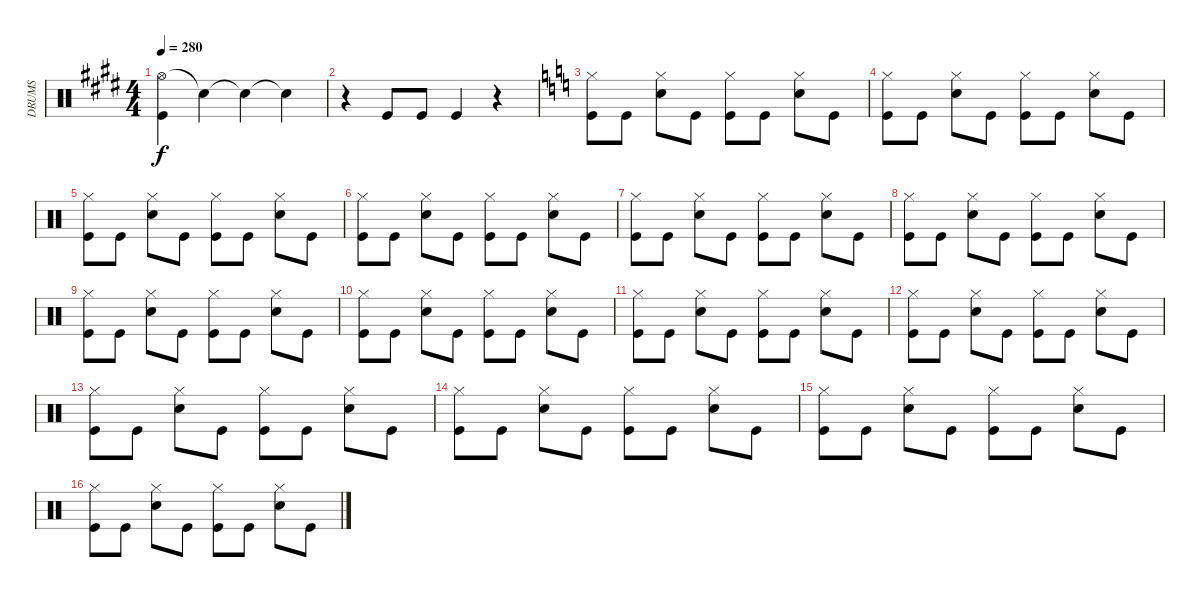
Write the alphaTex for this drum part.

\track ("DRUMS" "DRUMS") {instrument percussion}
\staff {score}
\articulation defaults
\ts (4 4)
\tempo 280
\clef neutral
\ks c#minor
("Hi-Hat (open)" "Kick (hit)").4{dy f} "Snare (hit)"{t}.4 "Snare (hit)"{t}.4 "Snare (hit)"{t}.4 |
r.4 "Kick (hit)".8 "Kick (hit)".8 "Kick (hit)".4 r.4 |
\ks aminor
("Hi-Hat (closed)" "Kick (hit)").8 "Kick (hit)".8 ("Hi-Hat (closed)" "Snare (hit) 2").8 "Kick (hit)".8 ("Hi-Hat (closed)" "Kick (hit)").8 "Kick (hit)".8 ("Hi-Hat (closed)" "Snare (hit) 2").8 "Kick (hit)".8 |
("Hi-Hat (closed)" "Kick (hit)").8 "Kick (hit)".8 ("Hi-Hat (closed)" "Snare (hit) 2").8 "Kick (hit)".8 ("Hi-Hat (closed)" "Kick (hit)").8 "Kick (hit)".8 ("Hi-Hat (closed)" "Snare (hit) 2").8 "Kick (hit)".8 |
("Hi-Hat (closed)" "Kick (hit)").8 "Kick (hit)".8 ("Hi-Hat (closed)" "Snare (hit) 2").8 "Kick (hit)".8 ("Hi-Hat (closed)" "Kick (hit)").8 "Kick (hit)".8 ("Hi-Hat (closed)" "Snare (hit) 2").8 "Kick (hit)".8 |
("Hi-Hat (closed)" "Kick (hit)").8 "Kick (hit)".8 ("Hi-Hat (closed)" "Snare (hit) 2").8 "Kick (hit)".8 ("Hi-Hat (closed)" "Kick (hit)").8 "Kick (hit)".8 ("Hi-Hat (closed)" "Snare (hit) 2").8 "Kick (hit)".8 |
("Hi-Hat (closed)" "Kick (hit)").8 "Kick (hit)".8 ("Hi-Hat (closed)" "Snare (hit) 2").8 "Kick (hit)".8 ("Hi-Hat (closed)" "Kick (hit)").8 "Kick (hit)".8 ("Hi-Hat (closed)" "Snare (hit) 2").8 "Kick (hit)".8 |
("Hi-Hat (closed)" "Kick (hit)").8 "Kick (hit)".8 ("Hi-Hat (closed)" "Snare (hit) 2").8 "Kick (hit)".8 ("Hi-Hat (closed)" "Kick (hit)").8 "Kick (hit)".8 ("Hi-Hat (closed)" "Snare (hit) 2").8 "Kick (hit)".8 |
("Hi-Hat (closed)" "Kick (hit)").8 "Kick (hit)".8 ("Hi-Hat (closed)" "Snare (hit) 2").8 "Kick (hit)".8 ("Hi-Hat (closed)" "Kick (hit)").8 "Kick (hit)".8 ("Hi-Hat (closed)" "Snare (hit) 2").8 "Kick (hit)".8 |
("Hi-Hat (closed)" "Kick (hit)").8 "Kick (hit)".8 ("Hi-Hat (closed)" "Snare (hit) 2").8 "Kick (hit)".8 ("Hi-Hat (closed)" "Kick (hit)").8 "Kick (hit)".8 ("Hi-Hat (closed)" "Snare (hit) 2").8 "Kick (hit)".8 |
("Hi-Hat (closed)" "Kick (hit)").8 "Kick (hit)".8 ("Hi-Hat (closed)" "Snare (hit) 2").8 "Kick (hit)".8 ("Hi-Hat (closed)" "Kick (hit)").8 "Kick (hit)".8 ("Hi-Hat (closed)" "Snare (hit) 2").8 "Kick (hit)".8 |
("Hi-Hat (closed)" "Kick (hit)").8 "Kick (hit)".8 ("Hi-Hat (closed)" "Snare (hit) 2").8 "Kick (hit)".8 ("Hi-Hat (closed)" "Kick (hit)").8 "Kick (hit)".8 ("Hi-Hat (closed)" "Snare (hit) 2").8 "Kick (hit)".8 |
("Hi-Hat (closed)" "Kick (hit)").8 "Kick (hit)".8 ("Hi-Hat (closed)" "Snare (hit) 2").8 "Kick (hit)".8 ("Hi-Hat (closed)" "Kick (hit)").8 "Kick (hit)".8 ("Hi-Hat (closed)" "Snare (hit) 2").8 "Kick (hit)".8 |
("Hi-Hat (closed)" "Kick (hit)").8 "Kick (hit)".8 ("Hi-Hat (closed)" "Snare (hit) 2").8 "Kick (hit)".8 ("Hi-Hat (closed)" "Kick (hit)").8 "Kick (hit)".8 ("Hi-Hat (closed)" "Snare (hit) 2").8 "Kick (hit)".8 |
("Hi-Hat (closed)" "Kick (hit)").8 "Kick (hit)".8 ("Hi-Hat (closed)" "Snare (hit) 2").8 "Kick (hit)".8 ("Hi-Hat (closed)" "Kick (hit)").8 "Kick (hit)".8 ("Hi-Hat (closed)" "Snare (hit) 2").8 "Kick (hit)".8 |
("Hi-Hat (closed)" "Kick (hit)").8 "Kick (hit)".8 ("Hi-Hat (closed)" "Snare (hit) 2").8 "Kick (hit)".8 ("Hi-Hat (closed)" "Kick (hit)").8 "Kick (hit)".8 ("Hi-Hat (closed)" "Snare (hit) 2").8 "Kick (hit)".8
